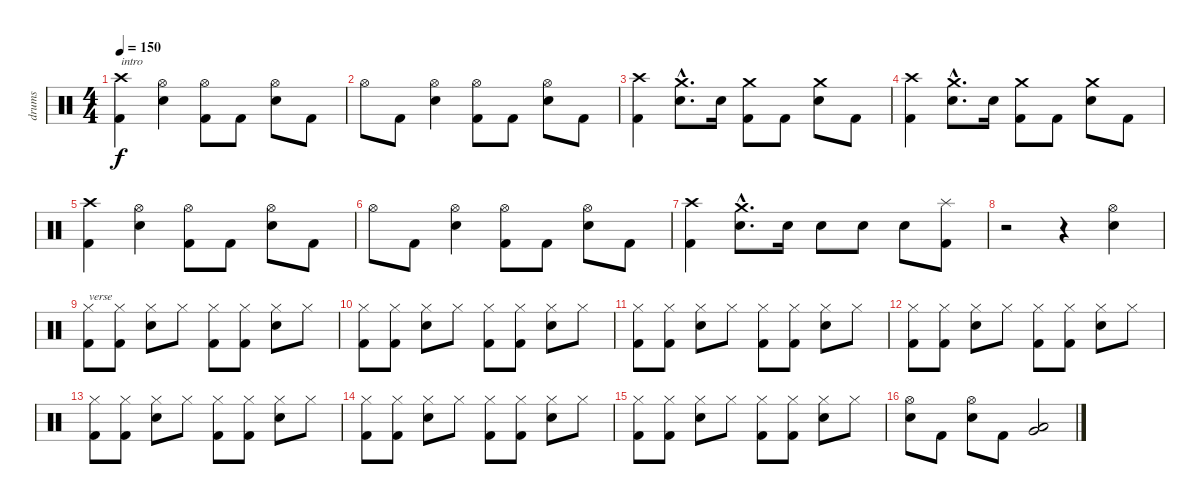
\track ("drums" "drums") {instrument percussion}
\staff {score}
\articulation defaults
\ts (4 4)
\tempo 150
\clef neutral
\ks c
("Crash high (hit)" "Kick (hit) 2").4{txt "intro" dy f} ("Hi-Hat (open)" "Electric Snare (hit)").4 ("Hi-Hat (open)" "Kick (hit) 2").8 "Kick (hit) 2".8 ("Hi-Hat (open)" "Electric Snare (hit)").8 "Kick (hit) 2".8 |
"Hi-Hat (open)".8 "Kick (hit) 2".8 ("Hi-Hat (open)" "Electric Snare (hit)").4 ("Hi-Hat (open)" "Kick (hit) 2").8 "Kick (hit) 2".8 ("Hi-Hat (open)" "Electric Snare (hit)").8 "Kick (hit) 2".8 |
("Crash high (hit)" "Kick (hit) 2").4 ("Crash medium (hit)"{hac} "Electric Snare (hit)"{hac}).8{d} "Electric Snare (hit)".16 ("Crash medium (hit)" "Kick (hit) 2").8 "Kick (hit) 2".8 ("Crash medium (hit)" "Electric Snare (hit)").8 "Kick (hit) 2".8 |
("Crash high (hit)" "Kick (hit) 2").4 ("Crash medium (hit)"{hac} "Electric Snare (hit)"{hac}).8{d} "Electric Snare (hit)".16 ("Crash medium (hit)" "Kick (hit) 2").8 "Kick (hit) 2".8 ("Crash medium (hit)" "Electric Snare (hit)").8 "Kick (hit) 2".8 |
("Crash high (hit)" "Kick (hit) 2").4 ("Hi-Hat (open)" "Electric Snare (hit)").4 ("Hi-Hat (open)" "Kick (hit) 2").8 "Kick (hit) 2".8 ("Hi-Hat (open)" "Electric Snare (hit)").8 "Kick (hit) 2".8 |
"Hi-Hat (open)".8 "Kick (hit) 2".8 ("Hi-Hat (open)" "Electric Snare (hit)").4 ("Hi-Hat (open)" "Kick (hit) 2").8 "Kick (hit) 2".8 ("Hi-Hat (open)" "Electric Snare (hit)").8 "Kick (hit) 2".8 |
("Crash high (hit)" "Kick (hit) 2").4 ("Crash medium (hit)"{hac} "Electric Snare (hit)"{hac}).8{d} "Electric Snare (hit)".16 "Electric Snare (hit)".8 "Electric Snare (hit)".8 "Electric Snare (hit)".8 ("Splash (hit)" "Kick (hit) 2").8 |
r.2 r.4 ("Hi-Hat (open)" "Electric Snare (hit)").4 |
("Hi-Hat (closed)" "Kick (hit) 2").8{txt "verse"} ("Hi-Hat (closed)" "Kick (hit) 2").8 ("Hi-Hat (closed)" "Electric Snare (hit)").8 "Hi-Hat (closed)".8 ("Hi-Hat (closed)" "Kick (hit) 2").8 ("Hi-Hat (closed)" "Kick (hit) 2").8 ("Hi-Hat (closed)" "Electric Snare (hit)").8 "Hi-Hat (closed)".8 |
("Hi-Hat (closed)" "Kick (hit) 2").8 ("Hi-Hat (closed)" "Kick (hit) 2").8 ("Hi-Hat (closed)" "Electric Snare (hit)").8 "Hi-Hat (closed)".8 ("Hi-Hat (closed)" "Kick (hit) 2").8 ("Hi-Hat (closed)" "Kick (hit) 2").8 ("Hi-Hat (closed)" "Electric Snare (hit)").8 "Hi-Hat (closed)".8 |
("Hi-Hat (closed)" "Kick (hit) 2").8 ("Hi-Hat (closed)" "Kick (hit) 2").8 ("Hi-Hat (closed)" "Electric Snare (hit)").8 "Hi-Hat (closed)".8 ("Hi-Hat (closed)" "Kick (hit) 2").8 ("Hi-Hat (closed)" "Kick (hit) 2").8 ("Hi-Hat (closed)" "Electric Snare (hit)").8 "Hi-Hat (closed)".8 |
("Hi-Hat (closed)" "Kick (hit) 2").8 ("Hi-Hat (closed)" "Kick (hit) 2").8 ("Hi-Hat (closed)" "Electric Snare (hit)").8 "Hi-Hat (closed)".8 ("Hi-Hat (closed)" "Kick (hit) 2").8 ("Hi-Hat (closed)" "Kick (hit) 2").8 ("Hi-Hat (closed)" "Electric Snare (hit)").8 "Hi-Hat (closed)".8 |
("Hi-Hat (closed)" "Kick (hit) 2").8 ("Hi-Hat (closed)" "Kick (hit) 2").8 ("Hi-Hat (closed)" "Electric Snare (hit)").8 "Hi-Hat (closed)".8 ("Hi-Hat (closed)" "Kick (hit) 2").8 ("Hi-Hat (closed)" "Kick (hit) 2").8 ("Hi-Hat (closed)" "Electric Snare (hit)").8 "Hi-Hat (closed)".8 |
("Hi-Hat (closed)" "Kick (hit) 2").8 ("Hi-Hat (closed)" "Kick (hit) 2").8 ("Hi-Hat (closed)" "Electric Snare (hit)").8 "Hi-Hat (closed)".8 ("Hi-Hat (closed)" "Kick (hit) 2").8 ("Hi-Hat (closed)" "Kick (hit) 2").8 ("Hi-Hat (closed)" "Electric Snare (hit)").8 "Hi-Hat (closed)".8 |
("Hi-Hat (closed)" "Kick (hit) 2").8 ("Hi-Hat (closed)" "Kick (hit) 2").8 ("Hi-Hat (closed)" "Electric Snare (hit)").8 "Hi-Hat (closed)".8 ("Hi-Hat (closed)" "Kick (hit) 2").8 ("Hi-Hat (closed)" "Kick (hit) 2").8 ("Hi-Hat (closed)" "Electric Snare (hit)").8 "Hi-Hat (closed)".8 |
("Hi-Hat (open)" "Electric Snare (hit)").8 "Kick (hit) 2".8 ("Hi-Hat (open)" "Electric Snare (hit)").8 "Kick (hit) 2".8 ("Low Floor Tom (hit)" "Very Low Tom (hit)").2
